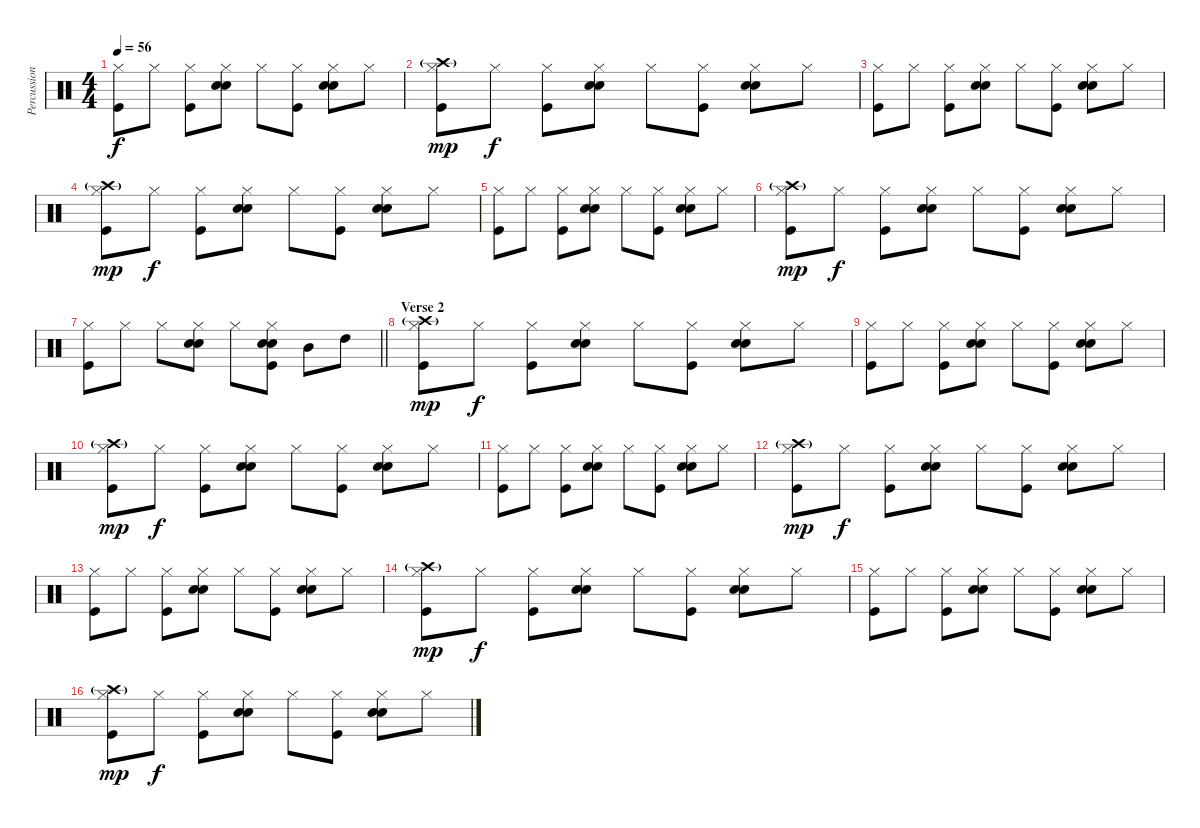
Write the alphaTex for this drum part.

\track ("Percussion" "Percussion") {instrument percussion}
\staff {score}
\articulation defaults
\ts (4 4)
\tempo 56
\clef neutral
\ks c
("Hi-Hat (closed)" "Kick (hit)").8{dy f} "Hi-Hat (closed)".8 ("Hi-Hat (closed)" "Kick (hit)").8 ("Hi-Hat (closed)" "Snare (hit) 2" "Snare (hit) 2").8 "Hi-Hat (closed)".8 ("Hi-Hat (closed)" "Kick (hit)").8 ("Hi-Hat (closed)" "Snare (hit) 2" "Snare (hit) 2").8 "Hi-Hat (closed)".8 |
("Hi-Hat (closed)" "Crash high (hit)"{g} "Kick (hit)").8{dy mp} "Hi-Hat (closed)".8{dy f} ("Hi-Hat (closed)" "Kick (hit)").8 ("Hi-Hat (closed)" "Snare (hit) 2" "Snare (hit) 2").8 "Hi-Hat (closed)".8 ("Hi-Hat (closed)" "Kick (hit)").8 ("Hi-Hat (closed)" "Snare (hit) 2" "Snare (hit) 2").8 "Hi-Hat (closed)".8 |
("Hi-Hat (closed)" "Kick (hit)").8 "Hi-Hat (closed)".8 ("Hi-Hat (closed)" "Kick (hit)").8 ("Hi-Hat (closed)" "Snare (hit) 2" "Snare (hit) 2").8 "Hi-Hat (closed)".8 ("Hi-Hat (closed)" "Kick (hit)").8 ("Hi-Hat (closed)" "Snare (hit) 2" "Snare (hit) 2").8 "Hi-Hat (closed)".8 |
("Hi-Hat (closed)" "Crash high (hit)"{g} "Kick (hit)").8{dy mp} "Hi-Hat (closed)".8{dy f} ("Hi-Hat (closed)" "Kick (hit)").8 ("Hi-Hat (closed)" "Snare (hit) 2" "Snare (hit) 2").8 "Hi-Hat (closed)".8 ("Hi-Hat (closed)" "Kick (hit)").8 ("Hi-Hat (closed)" "Snare (hit) 2" "Snare (hit) 2").8 "Hi-Hat (closed)".8 |
("Hi-Hat (closed)" "Kick (hit)").8 "Hi-Hat (closed)".8 ("Hi-Hat (closed)" "Kick (hit)").8 ("Hi-Hat (closed)" "Snare (hit) 2" "Snare (hit) 2").8 "Hi-Hat (closed)".8 ("Hi-Hat (closed)" "Kick (hit)").8 ("Hi-Hat (closed)" "Snare (hit) 2" "Snare (hit) 2").8 "Hi-Hat (closed)".8 |
("Hi-Hat (closed)" "Crash high (hit)"{g} "Kick (hit)").8{dy mp} "Hi-Hat (closed)".8{dy f} ("Hi-Hat (closed)" "Kick (hit)").8 ("Hi-Hat (closed)" "Snare (hit) 2" "Snare (hit) 2").8 "Hi-Hat (closed)".8 ("Hi-Hat (closed)" "Kick (hit)").8 ("Hi-Hat (closed)" "Snare (hit) 2" "Snare (hit) 2").8 "Hi-Hat (closed)".8 |
\barLineRight lightlight
("Hi-Hat (closed)" "Kick (hit)").8 "Hi-Hat (closed)".8 "Hi-Hat (closed)".8 ("Hi-Hat (closed)" "Snare (hit) 2" "Snare (hit) 2").8 "Hi-Hat (closed)".8 ("Hi-Hat (closed)" "Snare (hit) 2" "Snare (hit) 2" "Kick (hit)").8 "Mid Tom (hit)".8 "High Tom (hit)".8 |
\section ("" "Verse 2")
("Hi-Hat (closed)" "Crash high (hit)"{g} "Kick (hit)").8{dy mp} "Hi-Hat (closed)".8{dy f} ("Hi-Hat (closed)" "Kick (hit)").8 ("Hi-Hat (closed)" "Snare (hit) 2" "Snare (hit) 2").8 "Hi-Hat (closed)".8 ("Hi-Hat (closed)" "Kick (hit)").8 ("Hi-Hat (closed)" "Snare (hit) 2" "Snare (hit) 2").8 "Hi-Hat (closed)".8 |
("Hi-Hat (closed)" "Kick (hit)").8 "Hi-Hat (closed)".8 ("Hi-Hat (closed)" "Kick (hit)").8 ("Hi-Hat (closed)" "Snare (hit) 2" "Snare (hit) 2").8 "Hi-Hat (closed)".8 ("Hi-Hat (closed)" "Kick (hit)").8 ("Hi-Hat (closed)" "Snare (hit) 2" "Snare (hit) 2").8 "Hi-Hat (closed)".8 |
("Hi-Hat (closed)" "Crash high (hit)"{g} "Kick (hit)").8{dy mp} "Hi-Hat (closed)".8{dy f} ("Hi-Hat (closed)" "Kick (hit)").8 ("Hi-Hat (closed)" "Snare (hit) 2" "Snare (hit) 2").8 "Hi-Hat (closed)".8 ("Hi-Hat (closed)" "Kick (hit)").8 ("Hi-Hat (closed)" "Snare (hit) 2" "Snare (hit) 2").8 "Hi-Hat (closed)".8 |
("Hi-Hat (closed)" "Kick (hit)").8 "Hi-Hat (closed)".8 ("Hi-Hat (closed)" "Kick (hit)").8 ("Hi-Hat (closed)" "Snare (hit) 2" "Snare (hit) 2").8 "Hi-Hat (closed)".8 ("Hi-Hat (closed)" "Kick (hit)").8 ("Hi-Hat (closed)" "Snare (hit) 2" "Snare (hit) 2").8 "Hi-Hat (closed)".8 |
("Hi-Hat (closed)" "Crash high (hit)"{g} "Kick (hit)").8{dy mp} "Hi-Hat (closed)".8{dy f} ("Hi-Hat (closed)" "Kick (hit)").8 ("Hi-Hat (closed)" "Snare (hit) 2" "Snare (hit) 2").8 "Hi-Hat (closed)".8 ("Hi-Hat (closed)" "Kick (hit)").8 ("Hi-Hat (closed)" "Snare (hit) 2" "Snare (hit) 2").8 "Hi-Hat (closed)".8 |
("Hi-Hat (closed)" "Kick (hit)").8 "Hi-Hat (closed)".8 ("Hi-Hat (closed)" "Kick (hit)").8 ("Hi-Hat (closed)" "Snare (hit) 2" "Snare (hit) 2").8 "Hi-Hat (closed)".8 ("Hi-Hat (closed)" "Kick (hit)").8 ("Hi-Hat (closed)" "Snare (hit) 2" "Snare (hit) 2").8 "Hi-Hat (closed)".8 |
("Hi-Hat (closed)" "Crash high (hit)"{g} "Kick (hit)").8{dy mp} "Hi-Hat (closed)".8{dy f} ("Hi-Hat (closed)" "Kick (hit)").8 ("Hi-Hat (closed)" "Snare (hit) 2" "Snare (hit) 2").8 "Hi-Hat (closed)".8 ("Hi-Hat (closed)" "Kick (hit)").8 ("Hi-Hat (closed)" "Snare (hit) 2" "Snare (hit) 2").8 "Hi-Hat (closed)".8 |
("Hi-Hat (closed)" "Kick (hit)").8 "Hi-Hat (closed)".8 ("Hi-Hat (closed)" "Kick (hit)").8 ("Hi-Hat (closed)" "Snare (hit) 2" "Snare (hit) 2").8 "Hi-Hat (closed)".8 ("Hi-Hat (closed)" "Kick (hit)").8 ("Hi-Hat (closed)" "Snare (hit) 2" "Snare (hit) 2").8 "Hi-Hat (closed)".8 |
("Hi-Hat (closed)" "Crash high (hit)"{g} "Kick (hit)").8{dy mp} "Hi-Hat (closed)".8{dy f} ("Hi-Hat (closed)" "Kick (hit)").8 ("Hi-Hat (closed)" "Snare (hit) 2" "Snare (hit) 2").8 "Hi-Hat (closed)".8 ("Hi-Hat (closed)" "Kick (hit)").8 ("Hi-Hat (closed)" "Snare (hit) 2" "Snare (hit) 2").8 "Hi-Hat (closed)".8
